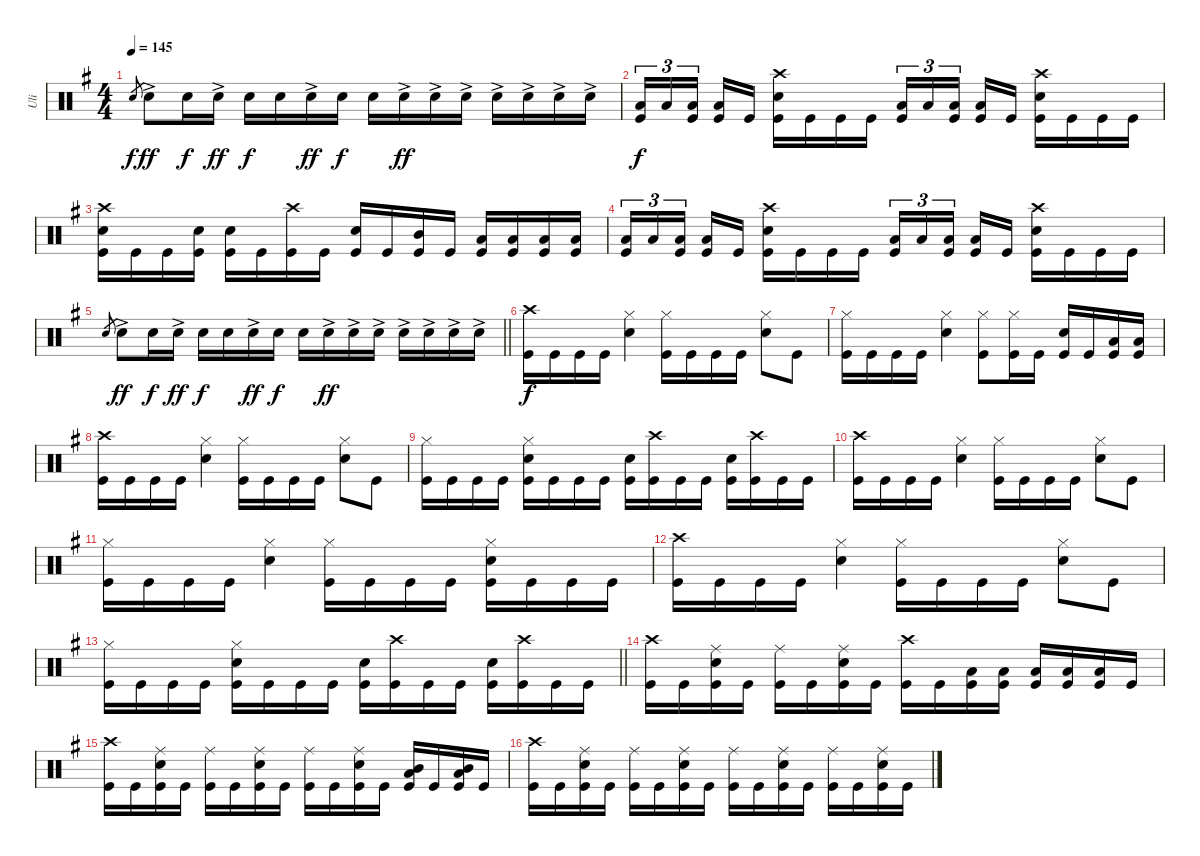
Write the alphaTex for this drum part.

\track ("Uli" "Uli") {instrument percussion}
\staff {score}
\articulation defaults
\ts (4 4)
\tempo 145
\clef neutral
\ks eminor "Snare (hit) 2".8{gr dy f} "Snare (hit) 2"{ac}.8{dy ff} "Snare (hit) 2".16{dy f} "Snare (hit) 2"{ac}.16{dy ff} "Snare (hit) 2".16{dy f} "Snare (hit) 2".16 "Snare (hit) 2"{ac}.16{dy ff} "Snare (hit) 2".16{dy f} "Snare (hit) 2".16 "Snare (hit) 2"{ac}.16{dy ff} "Snare (hit) 2"{ac}.16 "Snare (hit) 2"{ac}.16 "Snare (hit) 2"{ac}.16 "Snare (hit) 2"{ac}.16 "Snare (hit) 2"{ac}.16 "Snare (hit) 2"{ac}.16
|
("Low Tom (hit)" "Kick (hit)").16{tu (3 2) dy f} "Low Tom (hit)".16{tu (3 2)} ("Low Tom (hit)" "Kick (hit)").16{tu (3 2) beam splitsecondary} ("Low Tom (hit)" "Kick (hit)").16 "Kick (hit)".16 ("Crash high (hit)" "Snare (hit) 2" "Kick (hit)").16 "Kick (hit)".16 "Kick (hit)".16 "Kick (hit)".16 ("Low Tom (hit)" "Kick (hit)").16{tu (3 2)} "Low Tom (hit)".16{tu (3 2)} ("Low Tom (hit)" "Kick (hit)").16{tu (3 2) beam splitsecondary} ("Low Tom (hit)" "Kick (hit)").16 "Kick (hit)".16 ("Crash high (hit)" "Snare (hit) 2" "Kick (hit)").16 "Kick (hit)".16 "Kick (hit)".16 "Kick (hit)".16 |
("Crash high (hit)" "Snare (hit) 2" "Kick (hit)").16 "Kick (hit)".16 "Kick (hit)".16 ("Snare (hit) 2" "Kick (hit)").16 ("Snare (hit) 2" "Kick (hit)").16 "Kick (hit)".16 ("Crash high (hit)" "Kick (hit)").16 "Kick (hit)".16 ("Snare (hit) 2" "Kick (hit)").16 "Kick (hit)".16 ("Mid Tom (hit)" "Kick (hit)").16 "Kick (hit)".16 ("Low Tom (hit)" "Kick (hit)").16 ("Low Tom (hit)" "Kick (hit)").16 ("Low Tom (hit)" "Kick (hit)").16 ("Low Tom (hit)" "Kick (hit)").16 |
("Low Tom (hit)" "Kick (hit)").16{tu (3 2)} "Low Tom (hit)".16{tu (3 2)} ("Low Tom (hit)" "Kick (hit)").16{tu (3 2) beam splitsecondary} ("Low Tom (hit)" "Kick (hit)").16 "Kick (hit)".16 ("Crash high (hit)" "Snare (hit) 2" "Kick (hit)").16 "Kick (hit)".16 "Kick (hit)".16 "Kick (hit)".16 ("Low Tom (hit)" "Kick (hit)").16{tu (3 2)} "Low Tom (hit)".16{tu (3 2)} ("Low Tom (hit)" "Kick (hit)").16{tu (3 2) beam splitsecondary} ("Low Tom (hit)" "Kick (hit)").16 "Kick (hit)".16 ("Crash high (hit)" "Snare (hit) 2" "Kick (hit)").16 "Kick (hit)".16 "Kick (hit)".16 "Kick (hit)".16 |
\barLineRight lightlight "Snare (hit) 2".8{gr} "Snare (hit) 2"{ac}.8{dy ff} "Snare (hit) 2".16{dy f} "Snare (hit) 2"{ac}.16{dy ff} "Snare (hit) 2".16{dy f} "Snare (hit) 2".16 "Snare (hit) 2"{ac}.16{dy ff} "Snare (hit) 2".16{dy f} "Snare (hit) 2".16 "Snare (hit) 2"{ac}.16{dy ff} "Snare (hit) 2"{ac}.16 "Snare (hit) 2"{ac}.16 "Snare (hit) 2"{ac}.16 "Snare (hit) 2"{ac}.16 "Snare (hit) 2"{ac}.16 "Snare (hit) 2"{ac}.16
|
("Crash high (hit)" "Kick (hit)").16{dy f} "Kick (hit)".16 "Kick (hit)".16 "Kick (hit)".16 ("Hi-Hat (closed)" "Snare (hit) 2").4 ("Hi-Hat (closed)" "Kick (hit)").16 "Kick (hit)".16 "Kick (hit)".16 "Kick (hit)".16 ("Hi-Hat (closed)" "Snare (hit) 2").8 "Kick (hit)".8 |
("Hi-Hat (closed)" "Kick (hit)").16 "Kick (hit)".16 "Kick (hit)".16 "Kick (hit)".16 ("Hi-Hat (closed)" "Snare (hit) 2").4 ("Hi-Hat (closed)" "Kick (hit)").8 ("Hi-Hat (closed)" "Kick (hit)").16 "Kick (hit)".16 ("Snare (hit) 2" "Kick (hit)").16 "Kick (hit)".16 ("Low Tom (hit)" "Kick (hit)").16 ("Low Tom (hit)" "Kick (hit)").16 |
("Crash high (hit)" "Kick (hit)").16 "Kick (hit)".16 "Kick (hit)".16 "Kick (hit)".16 ("Hi-Hat (closed)" "Snare (hit) 2").4 ("Hi-Hat (closed)" "Kick (hit)").16 "Kick (hit)".16 "Kick (hit)".16 "Kick (hit)".16 ("Hi-Hat (closed)" "Snare (hit) 2").8 "Kick (hit)".8 |
("Hi-Hat (closed)" "Kick (hit)").16 "Kick (hit)".16 "Kick (hit)".16 "Kick (hit)".16 ("Hi-Hat (closed)" "Snare (hit) 2" "Kick (hit)").16 "Kick (hit)".16 "Kick (hit)".16 "Kick (hit)".16 ("Snare (hit) 2" "Kick (hit)").16 ("Crash high (hit)" "Kick (hit)").16 "Kick (hit)".16 "Kick (hit)".16 ("Snare (hit) 2" "Kick (hit)").16 ("Crash high (hit)" "Kick (hit)").16 "Kick (hit)".16 "Kick (hit)".16 |
("Crash high (hit)" "Kick (hit)").16 "Kick (hit)".16 "Kick (hit)".16 "Kick (hit)".16 ("Hi-Hat (closed)" "Snare (hit) 2").4 ("Hi-Hat (closed)" "Kick (hit)").16 "Kick (hit)".16 "Kick (hit)".16 "Kick (hit)".16 ("Hi-Hat (closed)" "Snare (hit) 2").8 "Kick (hit)".8 |
("Hi-Hat (closed)" "Kick (hit)").16 "Kick (hit)".16 "Kick (hit)".16 "Kick (hit)".16 ("Hi-Hat (closed)" "Snare (hit) 2").4 ("Hi-Hat (closed)" "Kick (hit)").16 "Kick (hit)".16 "Kick (hit)".16 "Kick (hit)".16 ("Hi-Hat (closed)" "Snare (hit) 2" "Kick (hit)").16 "Kick (hit)".16 "Kick (hit)".16 "Kick (hit)".16 |
("Crash high (hit)" "Kick (hit)").16 "Kick (hit)".16 "Kick (hit)".16 "Kick (hit)".16 ("Hi-Hat (closed)" "Snare (hit) 2").4 ("Hi-Hat (closed)" "Kick (hit)").16 "Kick (hit)".16 "Kick (hit)".16 "Kick (hit)".16 ("Hi-Hat (closed)" "Snare (hit) 2").8 "Kick (hit)".8 |
\barLineRight lightlight
("Hi-Hat (closed)" "Kick (hit)").16 "Kick (hit)".16 "Kick (hit)".16 "Kick (hit)".16 ("Hi-Hat (closed)" "Snare (hit) 2" "Kick (hit)").16 "Kick (hit)".16 "Kick (hit)".16 "Kick (hit)".16 ("Snare (hit) 2" "Kick (hit)").16 ("Crash high (hit)" "Kick (hit)").16 "Kick (hit)".16 "Kick (hit)".16 ("Snare (hit) 2" "Kick (hit)").16 ("Crash high (hit)" "Kick (hit)").16 "Kick (hit)".16 "Kick (hit)".16 |
("Crash high (hit)" "Kick (hit)").16 "Kick (hit)".16 ("Ride (middle)" "Snare (hit) 2" "Kick (hit)").16 "Kick (hit)".16 ("Ride (middle)" "Kick (hit)").16 "Kick (hit)".16 ("Ride (middle)" "Snare (hit) 2" "Kick (hit)").16 "Kick (hit)".16 ("Crash high (hit)" "Kick (hit)").16 "Kick (hit)".16 ("Low Tom (hit)" "Kick (hit)").16 ("Low Tom (hit)" "Kick (hit)").16 ("Low Tom (hit)" "Kick (hit)").16 ("Low Tom (hit)" "Kick (hit)").16 ("Low Tom (hit)" "Kick (hit)").16 "Kick (hit)".16 |
("Crash high (hit)" "Kick (hit)").16 "Kick (hit)".16 ("Ride (middle)" "Snare (hit) 2" "Kick (hit)").16 "Kick (hit)".16 ("Ride (middle)" "Kick (hit)").16 "Kick (hit)".16 ("Ride (middle)" "Snare (hit) 2" "Kick (hit)").16 "Kick (hit)".16 ("Ride (middle)" "Kick (hit)").16 "Kick (hit)".16 ("Ride (middle)" "Snare (hit) 2" "Kick (hit)").16 "Kick (hit)".16 ("Mid Tom (hit)" "Low Tom (hit)" "Kick (hit)").16 "Kick (hit)".16 ("Mid Tom (hit)" "Low Tom (hit)" "Kick (hit)").16 "Kick (hit)".16 |
("Crash high (hit)" "Kick (hit)").16 "Kick (hit)".16 ("Ride (middle)" "Snare (hit) 2" "Kick (hit)").16 "Kick (hit)".16 ("Ride (middle)" "Kick (hit)").16 "Kick (hit)".16 ("Ride (middle)" "Snare (hit) 2" "Kick (hit)").16 "Kick (hit)".16 ("Ride (middle)" "Kick (hit)").16 "Kick (hit)".16 ("Ride (middle)" "Snare (hit) 2" "Kick (hit)").16 "Kick (hit)".16 ("Ride (middle)" "Kick (hit)").16 "Kick (hit)".16 ("Ride (middle)" "Snare (hit) 2" "Kick (hit)").16 "Kick (hit)".16
